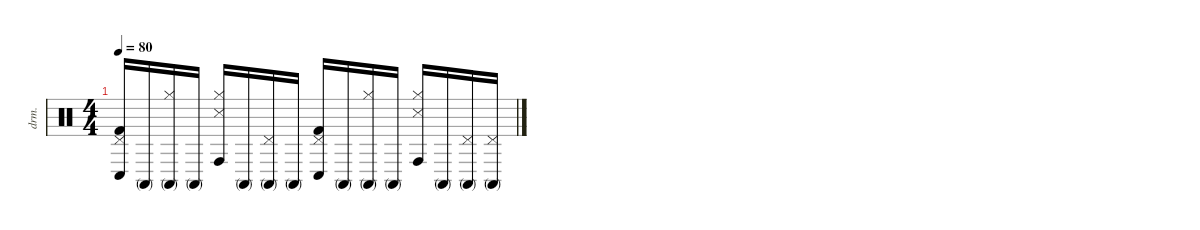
\defaultSystemsLayout 4
\hideDynamics
\bracketExtendMode nobrackets
\otherSystemsTrackNameOrientation horizontal
\track ("Percussions / Batterie" "drm.") {instrument percussion}
\staff {score}
\articulation defaults
\ts (4 4)
\tempo 80
\clef neutral
\ks c
("Conga low (hit)" "Pedal Hi-Hat (hit)" "Kick (hit) 2").16{dy pp beam Up} "Conga high (mute)".16{beam Up} ("Conga high (mute)" "Hi-Hat (closed)").16{beam Up} "Conga high (mute)".16{beam Up} ("Conga high (hit)" "Hi-Hat (closed)" "Snare (side stick) 3").16{beam Up} "Conga high (mute)".16{beam Up} ("Conga high (mute)" "Pedal Hi-Hat (hit)").16{beam Up} "Conga high (mute)".16{beam Up} ("Conga low (hit)" "Pedal Hi-Hat (hit)" "Kick (hit) 2").16{dy ppp beam Up} "Conga high (mute)".16{dy pp beam Up} ("Conga high (mute)" "Hi-Hat (closed)").16{beam Up} "Conga high (mute)".16{beam Up} ("Conga high (hit)" "Hi-Hat (closed)" "Snare (side stick) 3").16{dy ppp beam Up} "Conga high (mute)".16{beam Up} ("Conga high (mute)" "Pedal Hi-Hat (hit)").16{beam Up} ("Conga high (mute)" "Pedal Hi-Hat (hit)").16{beam Up}
